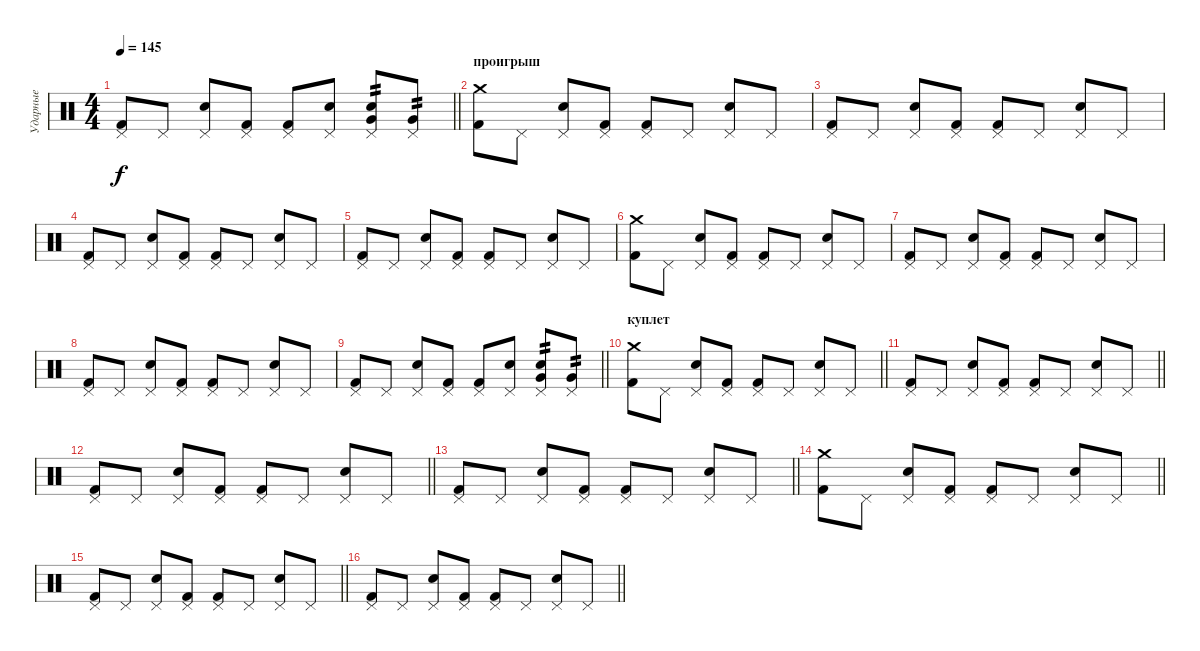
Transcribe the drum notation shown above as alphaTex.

\track ("Ударные" "Ударные") {instrument percussion}
\staff {score}
\articulation defaults
\ts (4 4)
\tempo 145
\clef neutral
\barLineRight lightlight
\ks c
("Pedal Hi-Hat (hit)" "Kick (hit) 2").8{dy f} "Pedal Hi-Hat (hit)".8 ("Pedal Hi-Hat (hit)" "Electric Snare (hit)").8 ("Pedal Hi-Hat (hit)" "Kick (hit) 2").8 ("Pedal Hi-Hat (hit)" "Kick (hit) 2").8 ("Pedal Hi-Hat (hit)" "Electric Snare (hit)").8 ("Pedal Hi-Hat (hit)" "Very Low Tom (hit)" "Electric Snare (hit)").8{tp 2} ("Pedal Hi-Hat (hit)" "Very Low Tom (hit)").8{tp 2} |
\section ("" "проигрыш")
("Crash medium (hit)" "Kick (hit) 2").8 "Pedal Hi-Hat (hit)".8 ("Pedal Hi-Hat (hit)" "Electric Snare (hit)").8 ("Pedal Hi-Hat (hit)" "Kick (hit) 2").8 ("Pedal Hi-Hat (hit)" "Kick (hit) 2").8 "Pedal Hi-Hat (hit)".8 ("Pedal Hi-Hat (hit)" "Electric Snare (hit)").8 "Pedal Hi-Hat (hit)".8 |
("Pedal Hi-Hat (hit)" "Kick (hit) 2").8 "Pedal Hi-Hat (hit)".8 ("Pedal Hi-Hat (hit)" "Electric Snare (hit)").8 ("Pedal Hi-Hat (hit)" "Kick (hit) 2").8 ("Pedal Hi-Hat (hit)" "Kick (hit) 2").8 "Pedal Hi-Hat (hit)".8 ("Pedal Hi-Hat (hit)" "Electric Snare (hit)").8 "Pedal Hi-Hat (hit)".8 |
("Pedal Hi-Hat (hit)" "Kick (hit) 2").8 "Pedal Hi-Hat (hit)".8 ("Pedal Hi-Hat (hit)" "Electric Snare (hit)").8 ("Pedal Hi-Hat (hit)" "Kick (hit) 2").8 ("Pedal Hi-Hat (hit)" "Kick (hit) 2").8 "Pedal Hi-Hat (hit)".8 ("Pedal Hi-Hat (hit)" "Electric Snare (hit)").8 "Pedal Hi-Hat (hit)".8 |
("Pedal Hi-Hat (hit)" "Kick (hit) 2").8 "Pedal Hi-Hat (hit)".8 ("Pedal Hi-Hat (hit)" "Electric Snare (hit)").8 ("Pedal Hi-Hat (hit)" "Kick (hit) 2").8 ("Pedal Hi-Hat (hit)" "Kick (hit) 2").8 "Pedal Hi-Hat (hit)".8 ("Pedal Hi-Hat (hit)" "Electric Snare (hit)").8 "Pedal Hi-Hat (hit)".8 |
("Crash medium (hit)" "Kick (hit) 2").8 "Pedal Hi-Hat (hit)".8 ("Pedal Hi-Hat (hit)" "Electric Snare (hit)").8 ("Pedal Hi-Hat (hit)" "Kick (hit) 2").8 ("Pedal Hi-Hat (hit)" "Kick (hit) 2").8 "Pedal Hi-Hat (hit)".8 ("Pedal Hi-Hat (hit)" "Electric Snare (hit)").8 "Pedal Hi-Hat (hit)".8 |
("Pedal Hi-Hat (hit)" "Kick (hit) 2").8 "Pedal Hi-Hat (hit)".8 ("Pedal Hi-Hat (hit)" "Electric Snare (hit)").8 ("Pedal Hi-Hat (hit)" "Kick (hit) 2").8 ("Pedal Hi-Hat (hit)" "Kick (hit) 2").8 "Pedal Hi-Hat (hit)".8 ("Pedal Hi-Hat (hit)" "Electric Snare (hit)").8 "Pedal Hi-Hat (hit)".8 |
("Pedal Hi-Hat (hit)" "Kick (hit) 2").8 "Pedal Hi-Hat (hit)".8 ("Pedal Hi-Hat (hit)" "Electric Snare (hit)").8 ("Pedal Hi-Hat (hit)" "Kick (hit) 2").8 ("Pedal Hi-Hat (hit)" "Kick (hit) 2").8 "Pedal Hi-Hat (hit)".8 ("Pedal Hi-Hat (hit)" "Electric Snare (hit)").8 "Pedal Hi-Hat (hit)".8 |
\barLineRight lightlight
("Pedal Hi-Hat (hit)" "Kick (hit) 2").8 "Pedal Hi-Hat (hit)".8 ("Pedal Hi-Hat (hit)" "Electric Snare (hit)").8 ("Pedal Hi-Hat (hit)" "Kick (hit) 2").8 ("Pedal Hi-Hat (hit)" "Kick (hit) 2").8 ("Pedal Hi-Hat (hit)" "Electric Snare (hit)").8 ("Pedal Hi-Hat (hit)" "Very Low Tom (hit)" "Electric Snare (hit)").8{tp 2} ("Pedal Hi-Hat (hit)" "Very Low Tom (hit)").8{tp 2} |
\section ("" "куплет")
\barLineRight lightlight
("Crash medium (hit)" "Kick (hit) 2").8 "Pedal Hi-Hat (hit)".8 ("Pedal Hi-Hat (hit)" "Electric Snare (hit)").8 ("Pedal Hi-Hat (hit)" "Kick (hit) 2").8 ("Pedal Hi-Hat (hit)" "Kick (hit) 2").8 "Pedal Hi-Hat (hit)".8 ("Pedal Hi-Hat (hit)" "Electric Snare (hit)").8 "Pedal Hi-Hat (hit)".8 |
\barLineRight lightlight
("Pedal Hi-Hat (hit)" "Kick (hit) 2").8 "Pedal Hi-Hat (hit)".8 ("Pedal Hi-Hat (hit)" "Electric Snare (hit)").8 ("Pedal Hi-Hat (hit)" "Kick (hit) 2").8 ("Pedal Hi-Hat (hit)" "Kick (hit) 2").8 "Pedal Hi-Hat (hit)".8 ("Pedal Hi-Hat (hit)" "Electric Snare (hit)").8 "Pedal Hi-Hat (hit)".8 |
\barLineRight lightlight
("Pedal Hi-Hat (hit)" "Kick (hit) 2").8 "Pedal Hi-Hat (hit)".8 ("Pedal Hi-Hat (hit)" "Electric Snare (hit)").8 ("Pedal Hi-Hat (hit)" "Kick (hit) 2").8 ("Pedal Hi-Hat (hit)" "Kick (hit) 2").8 "Pedal Hi-Hat (hit)".8 ("Pedal Hi-Hat (hit)" "Electric Snare (hit)").8 "Pedal Hi-Hat (hit)".8 |
\barLineRight lightlight
("Pedal Hi-Hat (hit)" "Kick (hit) 2").8 "Pedal Hi-Hat (hit)".8 ("Pedal Hi-Hat (hit)" "Electric Snare (hit)").8 ("Pedal Hi-Hat (hit)" "Kick (hit) 2").8 ("Pedal Hi-Hat (hit)" "Kick (hit) 2").8 "Pedal Hi-Hat (hit)".8 ("Pedal Hi-Hat (hit)" "Electric Snare (hit)").8 "Pedal Hi-Hat (hit)".8 |
\barLineRight lightlight
("Crash medium (hit)" "Kick (hit) 2").8 "Pedal Hi-Hat (hit)".8 ("Pedal Hi-Hat (hit)" "Electric Snare (hit)").8 ("Pedal Hi-Hat (hit)" "Kick (hit) 2").8 ("Pedal Hi-Hat (hit)" "Kick (hit) 2").8 "Pedal Hi-Hat (hit)".8 ("Pedal Hi-Hat (hit)" "Electric Snare (hit)").8 "Pedal Hi-Hat (hit)".8 |
\barLineRight lightlight
("Pedal Hi-Hat (hit)" "Kick (hit) 2").8 "Pedal Hi-Hat (hit)".8 ("Pedal Hi-Hat (hit)" "Electric Snare (hit)").8 ("Pedal Hi-Hat (hit)" "Kick (hit) 2").8 ("Pedal Hi-Hat (hit)" "Kick (hit) 2").8 "Pedal Hi-Hat (hit)".8 ("Pedal Hi-Hat (hit)" "Electric Snare (hit)").8 "Pedal Hi-Hat (hit)".8 |
\barLineRight lightlight
("Pedal Hi-Hat (hit)" "Kick (hit) 2").8 "Pedal Hi-Hat (hit)".8 ("Pedal Hi-Hat (hit)" "Electric Snare (hit)").8 ("Pedal Hi-Hat (hit)" "Kick (hit) 2").8 ("Pedal Hi-Hat (hit)" "Kick (hit) 2").8 "Pedal Hi-Hat (hit)".8 ("Pedal Hi-Hat (hit)" "Electric Snare (hit)").8 "Pedal Hi-Hat (hit)".8
